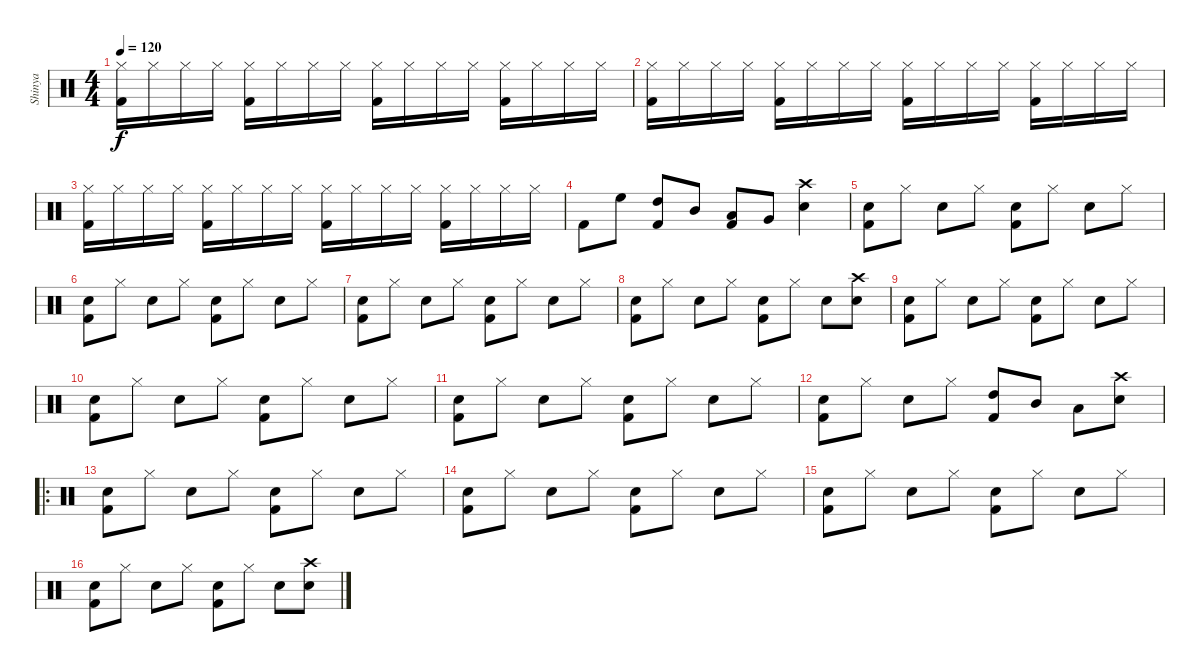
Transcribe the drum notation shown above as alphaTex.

\track ("Shinya" "Shinya") {instrument percussion}
\staff {score}
\articulation defaults
\ts (4 4)
\tempo 120
\clef neutral
\ks c
("Hi-Hat (closed)" "Kick (hit) 2").16{dy f} "Hi-Hat (closed)".16 "Hi-Hat (closed)".16 "Hi-Hat (closed)".16 ("Hi-Hat (closed)" "Kick (hit) 2").16 "Hi-Hat (closed)".16 "Hi-Hat (closed)".16 "Hi-Hat (closed)".16 ("Hi-Hat (closed)" "Kick (hit) 2").16 "Hi-Hat (closed)".16 "Hi-Hat (closed)".16 "Hi-Hat (closed)".16 ("Hi-Hat (closed)" "Kick (hit) 2").16 "Hi-Hat (closed)".16 "Hi-Hat (closed)".16 "Hi-Hat (closed)".16 |
("Hi-Hat (closed)" "Kick (hit) 2").16 "Hi-Hat (closed)".16 "Hi-Hat (closed)".16 "Hi-Hat (closed)".16 ("Hi-Hat (closed)" "Kick (hit) 2").16 "Hi-Hat (closed)".16 "Hi-Hat (closed)".16 "Hi-Hat (closed)".16 ("Hi-Hat (closed)" "Kick (hit) 2").16 "Hi-Hat (closed)".16 "Hi-Hat (closed)".16 "Hi-Hat (closed)".16 ("Hi-Hat (closed)" "Kick (hit) 2").16 "Hi-Hat (closed)".16 "Hi-Hat (closed)".16 "Hi-Hat (closed)".16 |
("Hi-Hat (closed)" "Kick (hit) 2").16 "Hi-Hat (closed)".16 "Hi-Hat (closed)".16 "Hi-Hat (closed)".16 ("Hi-Hat (closed)" "Kick (hit) 2").16 "Hi-Hat (closed)".16 "Hi-Hat (closed)".16 "Hi-Hat (closed)".16 ("Hi-Hat (closed)" "Kick (hit) 2").16 "Hi-Hat (closed)".16 "Hi-Hat (closed)".16 "Hi-Hat (closed)".16 ("Hi-Hat (closed)" "Kick (hit) 2").16 "Hi-Hat (closed)".16 "Hi-Hat (closed)".16 "Hi-Hat (closed)".16 |
"Kick (hit) 2".8 "High Floor Tom (hit)".8 ("High Tom (hit)" "Kick (hit) 2").8 "Mid Tom (hit)".8 ("Low Tom (hit)" "Kick (hit) 2").8 "Very Low Tom (hit)".8 ("Crash high (hit)" "Electric Snare (hit)").4 |
("Snare (hit)"{x} "Kick (hit) 2").8 "Hi-Hat (closed)".8 "Electric Snare (hit)".8 "Hi-Hat (closed)".8 ("Snare (hit)"{x} "Kick (hit) 2").8 "Hi-Hat (closed)".8 "Electric Snare (hit)".8 "Hi-Hat (closed)".8 |
("Snare (hit)"{x} "Kick (hit) 2").8 "Hi-Hat (closed)".8 "Electric Snare (hit)".8 "Hi-Hat (closed)".8 ("Snare (hit)"{x} "Kick (hit) 2").8 "Hi-Hat (closed)".8 "Electric Snare (hit)".8 "Hi-Hat (closed)".8 |
("Snare (hit)"{x} "Kick (hit) 2").8 "Hi-Hat (closed)".8 "Electric Snare (hit)".8 "Hi-Hat (closed)".8 ("Snare (hit)"{x} "Kick (hit) 2").8 "Hi-Hat (closed)".8 "Electric Snare (hit)".8 "Hi-Hat (closed)".8 |
("Snare (hit)"{x} "Kick (hit) 2").8 "Hi-Hat (closed)".8 "Electric Snare (hit)".8 "Hi-Hat (closed)".8 ("Snare (hit)"{x} "Kick (hit) 2").8 "Hi-Hat (closed)".8 "Electric Snare (hit)".8 ("Electric Snare (hit)" "Crash high (hit)").8 |
("Snare (hit)"{x} "Kick (hit) 2").8 "Hi-Hat (closed)".8 "Electric Snare (hit)".8 "Hi-Hat (closed)".8 ("Snare (hit)"{x} "Kick (hit) 2").8 "Hi-Hat (closed)".8 "Electric Snare (hit)".8 "Hi-Hat (closed)".8 |
("Snare (hit)"{x} "Kick (hit) 2").8 "Hi-Hat (closed)".8 "Electric Snare (hit)".8 "Hi-Hat (closed)".8 ("Snare (hit)"{x} "Kick (hit) 2").8 "Hi-Hat (closed)".8 "Electric Snare (hit)".8 "Hi-Hat (closed)".8 |
("Snare (hit)"{x} "Kick (hit) 2").8 "Hi-Hat (closed)".8 "Electric Snare (hit)".8 "Hi-Hat (closed)".8 ("Snare (hit)"{x} "Kick (hit) 2").8 "Hi-Hat (closed)".8 "Electric Snare (hit)".8 "Hi-Hat (closed)".8 |
("Snare (hit)"{x} "Kick (hit) 2").8 "Hi-Hat (closed)".8 "Electric Snare (hit)".8 "Hi-Hat (closed)".8 ("High Tom (hit)" "Kick (hit) 2").8 "Mid Tom (hit)".8 "Low Tom (hit)".8 ("Electric Snare (hit)" "Crash high (hit)").8 |
\ro
("Snare (hit)"{x} "Kick (hit) 2").8 "Hi-Hat (closed)".8 "Electric Snare (hit)".8 "Hi-Hat (closed)".8 ("Snare (hit)"{x} "Kick (hit) 2").8 "Hi-Hat (closed)".8 "Electric Snare (hit)".8 "Hi-Hat (closed)".8 |
("Snare (hit)"{x} "Kick (hit) 2").8 "Hi-Hat (closed)".8 "Electric Snare (hit)".8 "Hi-Hat (closed)".8 ("Snare (hit)"{x} "Kick (hit) 2").8 "Hi-Hat (closed)".8 "Electric Snare (hit)".8 "Hi-Hat (closed)".8 |
("Snare (hit)"{x} "Kick (hit) 2").8 "Hi-Hat (closed)".8 "Electric Snare (hit)".8 "Hi-Hat (closed)".8 ("Snare (hit)"{x} "Kick (hit) 2").8 "Hi-Hat (closed)".8 "Electric Snare (hit)".8 "Hi-Hat (closed)".8 |
("Snare (hit)"{x} "Kick (hit) 2").8 "Hi-Hat (closed)".8 "Electric Snare (hit)".8 "Hi-Hat (closed)".8 ("Snare (hit)"{x} "Kick (hit) 2").8 "Hi-Hat (closed)".8 "Electric Snare (hit)".8 ("Electric Snare (hit)" "Crash high (hit)").8
